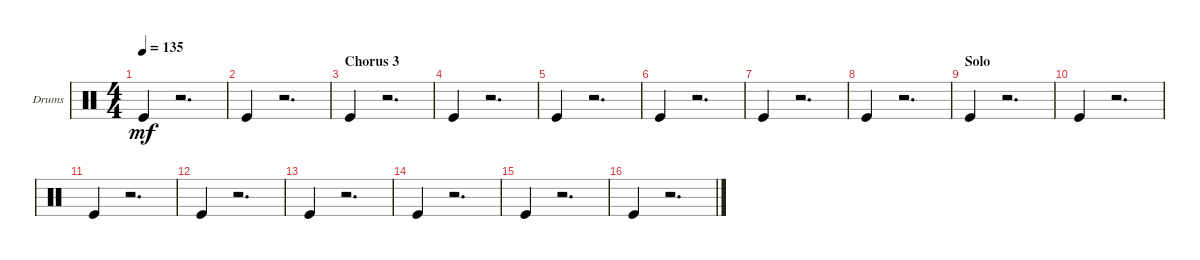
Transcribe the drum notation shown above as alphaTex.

\bracketExtendMode groupsimilarinstruments
\firstSystemTrackNameOrientation horizontal
\otherSystemsTrackNameOrientation horizontal
\chordDiagramsInScore
\track ("Drumkit" "Drums") {instrument percussion}
\staff {score}
\articulation defaults
\ts (4 4)
\tempo 135
\clef neutral
\ks c "Kick (hit)".4{dy mf}
r.2{d} |
"Kick (hit)".4 r.2{d} |
\section ("" "Chorus 3")
"Kick (hit)".4 r.2{d} |
"Kick (hit)".4 r.2{d} |
"Kick (hit)".4 r.2{d} |
"Kick (hit)".4 r.2{d} |
"Kick (hit)".4 r.2{d} |
"Kick (hit)".4 r.2{d} |
\section ("" "Solo")
"Kick (hit)".4 r.2{d} |
"Kick (hit)".4 r.2{d} |
"Kick (hit)".4 r.2{d} |
"Kick (hit)".4 r.2{d} |
"Kick (hit)".4 r.2{d} |
"Kick (hit)".4 r.2{d} |
"Kick (hit)".4 r.2{d} |
"Kick (hit)".4 r.2{d}
